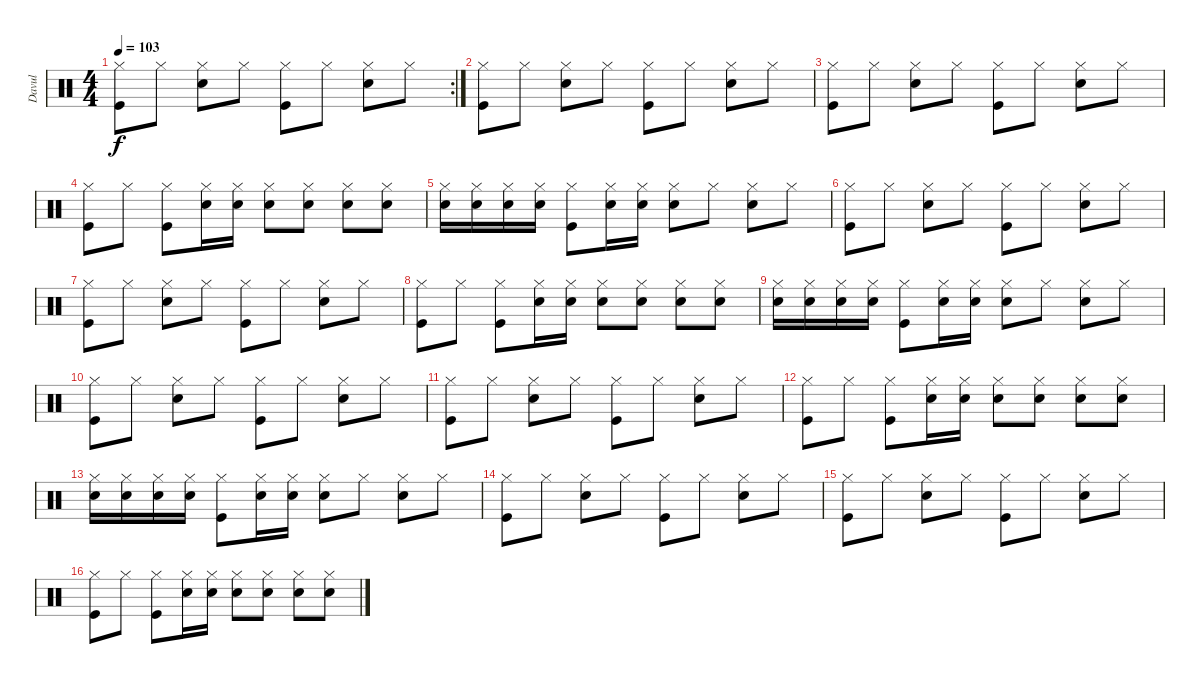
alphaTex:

\track ("Davul" "Davul") {instrument percussion}
\staff {score}
\articulation defaults
\rc 2
\ts (4 4)
\tempo 103
\clef neutral
\ks c
("Hi-Hat (closed)" "Kick (hit)").8{dy f} "Hi-Hat (closed)".8 ("Hi-Hat (closed)" "Electric Snare (hit)").8 "Hi-Hat (closed)".8 ("Hi-Hat (closed)" "Kick (hit)").8 "Hi-Hat (closed)".8 ("Hi-Hat (closed)" "Electric Snare (hit)").8 "Hi-Hat (closed)".8 |
("Hi-Hat (closed)" "Kick (hit)").8 "Hi-Hat (closed)".8 ("Hi-Hat (closed)" "Electric Snare (hit)").8 "Hi-Hat (closed)".8 ("Hi-Hat (closed)" "Kick (hit)").8 "Hi-Hat (closed)".8 ("Hi-Hat (closed)" "Electric Snare (hit)").8 "Hi-Hat (closed)".8 |
("Hi-Hat (closed)" "Kick (hit)").8 "Hi-Hat (closed)".8 ("Hi-Hat (closed)" "Electric Snare (hit)").8 "Hi-Hat (closed)".8 ("Hi-Hat (closed)" "Kick (hit)").8 "Hi-Hat (closed)".8 ("Hi-Hat (closed)" "Electric Snare (hit)").8 "Hi-Hat (closed)".8 |
("Hi-Hat (closed)" "Kick (hit)").8 "Hi-Hat (closed)".8 ("Hi-Hat (closed)" "Kick (hit)").8 ("Hi-Hat (closed)" "Electric Snare (hit)").16 ("Hi-Hat (closed)" "Electric Snare (hit)").16 ("Hi-Hat (closed)" "Electric Snare (hit)").8 ("Hi-Hat (closed)" "Electric Snare (hit)").8 ("Hi-Hat (closed)" "Electric Snare (hit)").8 ("Hi-Hat (closed)" "Electric Snare (hit)").8 |
("Hi-Hat (closed)" "Electric Snare (hit)").16 ("Hi-Hat (closed)" "Electric Snare (hit)").16 ("Hi-Hat (closed)" "Electric Snare (hit)").16 ("Hi-Hat (closed)" "Electric Snare (hit)").16 ("Hi-Hat (closed)" "Kick (hit)").8 ("Hi-Hat (closed)" "Electric Snare (hit)").16 ("Hi-Hat (closed)" "Electric Snare (hit)").16 ("Hi-Hat (closed)" "Electric Snare (hit)").8 "Hi-Hat (closed)".8 ("Hi-Hat (closed)" "Electric Snare (hit)").8 "Hi-Hat (closed)".8 |
("Hi-Hat (closed)" "Kick (hit)").8 "Hi-Hat (closed)".8 ("Hi-Hat (closed)" "Electric Snare (hit)").8 "Hi-Hat (closed)".8 ("Hi-Hat (closed)" "Kick (hit)").8 "Hi-Hat (closed)".8 ("Hi-Hat (closed)" "Electric Snare (hit)").8 "Hi-Hat (closed)".8 |
("Hi-Hat (closed)" "Kick (hit)").8 "Hi-Hat (closed)".8 ("Hi-Hat (closed)" "Electric Snare (hit)").8 "Hi-Hat (closed)".8 ("Hi-Hat (closed)" "Kick (hit)").8 "Hi-Hat (closed)".8 ("Hi-Hat (closed)" "Electric Snare (hit)").8 "Hi-Hat (closed)".8 |
("Hi-Hat (closed)" "Kick (hit)").8 "Hi-Hat (closed)".8 ("Hi-Hat (closed)" "Kick (hit)").8 ("Hi-Hat (closed)" "Electric Snare (hit)").16 ("Hi-Hat (closed)" "Electric Snare (hit)").16 ("Hi-Hat (closed)" "Electric Snare (hit)").8 ("Hi-Hat (closed)" "Electric Snare (hit)").8 ("Hi-Hat (closed)" "Electric Snare (hit)").8 ("Hi-Hat (closed)" "Electric Snare (hit)").8 |
("Hi-Hat (closed)" "Electric Snare (hit)").16 ("Hi-Hat (closed)" "Electric Snare (hit)").16 ("Hi-Hat (closed)" "Electric Snare (hit)").16 ("Hi-Hat (closed)" "Electric Snare (hit)").16 ("Hi-Hat (closed)" "Kick (hit)").8 ("Hi-Hat (closed)" "Electric Snare (hit)").16 ("Hi-Hat (closed)" "Electric Snare (hit)").16 ("Hi-Hat (closed)" "Electric Snare (hit)").8 "Hi-Hat (closed)".8 ("Hi-Hat (closed)" "Electric Snare (hit)").8 "Hi-Hat (closed)".8 |
("Hi-Hat (closed)" "Kick (hit)").8 "Hi-Hat (closed)".8 ("Hi-Hat (closed)" "Electric Snare (hit)").8 "Hi-Hat (closed)".8 ("Hi-Hat (closed)" "Kick (hit)").8 "Hi-Hat (closed)".8 ("Hi-Hat (closed)" "Electric Snare (hit)").8 "Hi-Hat (closed)".8 |
("Hi-Hat (closed)" "Kick (hit)").8 "Hi-Hat (closed)".8 ("Hi-Hat (closed)" "Electric Snare (hit)").8 "Hi-Hat (closed)".8 ("Hi-Hat (closed)" "Kick (hit)").8 "Hi-Hat (closed)".8 ("Hi-Hat (closed)" "Electric Snare (hit)").8 "Hi-Hat (closed)".8 |
("Hi-Hat (closed)" "Kick (hit)").8 "Hi-Hat (closed)".8 ("Hi-Hat (closed)" "Kick (hit)").8 ("Hi-Hat (closed)" "Electric Snare (hit)").16 ("Hi-Hat (closed)" "Electric Snare (hit)").16 ("Hi-Hat (closed)" "Electric Snare (hit)").8 ("Hi-Hat (closed)" "Electric Snare (hit)").8 ("Hi-Hat (closed)" "Electric Snare (hit)").8 ("Hi-Hat (closed)" "Electric Snare (hit)").8 |
("Hi-Hat (closed)" "Electric Snare (hit)").16 ("Hi-Hat (closed)" "Electric Snare (hit)").16 ("Hi-Hat (closed)" "Electric Snare (hit)").16 ("Hi-Hat (closed)" "Electric Snare (hit)").16 ("Hi-Hat (closed)" "Kick (hit)").8 ("Hi-Hat (closed)" "Electric Snare (hit)").16 ("Hi-Hat (closed)" "Electric Snare (hit)").16 ("Hi-Hat (closed)" "Electric Snare (hit)").8 "Hi-Hat (closed)".8 ("Hi-Hat (closed)" "Electric Snare (hit)").8 "Hi-Hat (closed)".8 |
("Hi-Hat (closed)" "Kick (hit)").8 "Hi-Hat (closed)".8 ("Hi-Hat (closed)" "Electric Snare (hit)").8 "Hi-Hat (closed)".8 ("Hi-Hat (closed)" "Kick (hit)").8 "Hi-Hat (closed)".8 ("Hi-Hat (closed)" "Electric Snare (hit)").8 "Hi-Hat (closed)".8 |
("Hi-Hat (closed)" "Kick (hit)").8 "Hi-Hat (closed)".8 ("Hi-Hat (closed)" "Electric Snare (hit)").8 "Hi-Hat (closed)".8 ("Hi-Hat (closed)" "Kick (hit)").8 "Hi-Hat (closed)".8 ("Hi-Hat (closed)" "Electric Snare (hit)").8 "Hi-Hat (closed)".8 |
("Hi-Hat (closed)" "Kick (hit)").8 "Hi-Hat (closed)".8 ("Hi-Hat (closed)" "Kick (hit)").8 ("Hi-Hat (closed)" "Electric Snare (hit)").16 ("Hi-Hat (closed)" "Electric Snare (hit)").16 ("Hi-Hat (closed)" "Electric Snare (hit)").8 ("Hi-Hat (closed)" "Electric Snare (hit)").8 ("Hi-Hat (closed)" "Electric Snare (hit)").8 ("Hi-Hat (closed)" "Electric Snare (hit)").8
